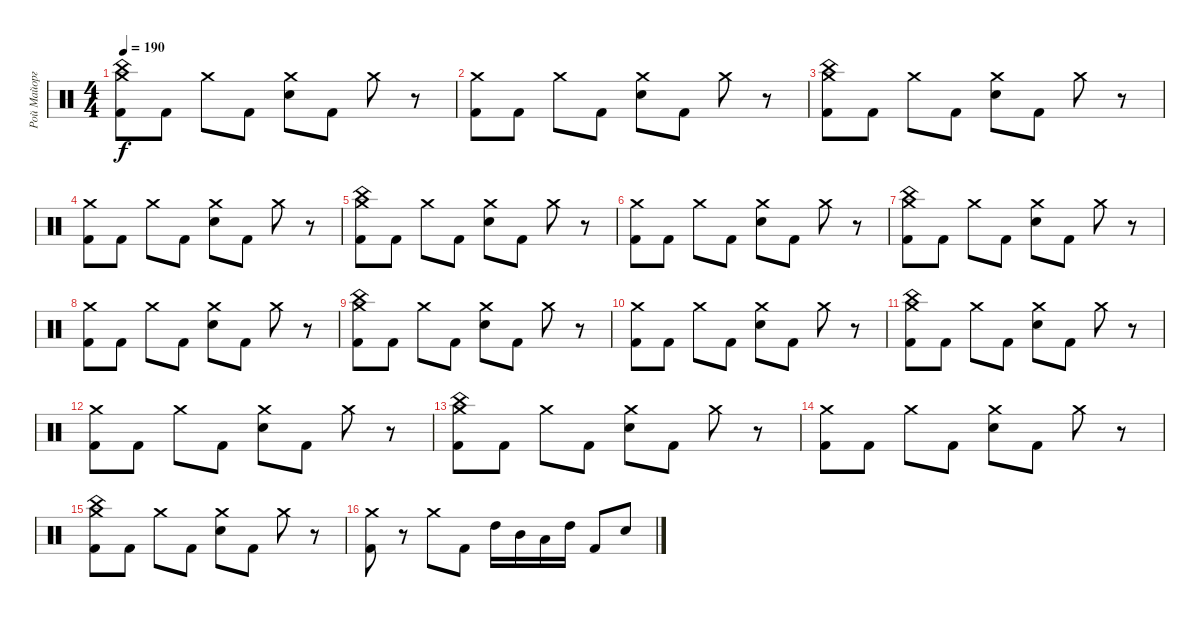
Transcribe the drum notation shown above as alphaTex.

\track ("Рой Майорга" "Рой Майорг") {instrument percussion}
\staff {score}
\articulation defaults
\ts (4 4)
\tempo 190
\clef neutral
\ks c
("Crash medium (hit)" "China (hit)" "Kick (hit) 2").8{dy f} "Kick (hit) 2".8 "Crash medium (hit)".8 "Kick (hit) 2".8 ("Crash medium (hit)" "Electric Snare (hit)").8 "Kick (hit) 2".8 "Crash medium (hit)".8 r.8 |
("Crash medium (hit)" "Kick (hit) 2").8 "Kick (hit) 2".8 "Crash medium (hit)".8 "Kick (hit) 2".8 ("Crash medium (hit)" "Electric Snare (hit)").8 "Kick (hit) 2".8 "Crash medium (hit)".8 r.8 |
("Crash medium (hit)" "China (hit)" "Kick (hit) 2").8 "Kick (hit) 2".8 "Crash medium (hit)".8 "Kick (hit) 2".8 ("Crash medium (hit)" "Electric Snare (hit)").8 "Kick (hit) 2".8 "Crash medium (hit)".8 r.8 |
("Crash medium (hit)" "Kick (hit) 2").8 "Kick (hit) 2".8 "Crash medium (hit)".8 "Kick (hit) 2".8 ("Crash medium (hit)" "Electric Snare (hit)").8 "Kick (hit) 2".8 "Crash medium (hit)".8 r.8 |
("Crash medium (hit)" "China (hit)" "Kick (hit) 2").8 "Kick (hit) 2".8 "Crash medium (hit)".8 "Kick (hit) 2".8 ("Crash medium (hit)" "Electric Snare (hit)").8 "Kick (hit) 2".8 "Crash medium (hit)".8 r.8 |
("Crash medium (hit)" "Kick (hit) 2").8 "Kick (hit) 2".8 "Crash medium (hit)".8 "Kick (hit) 2".8 ("Crash medium (hit)" "Electric Snare (hit)").8 "Kick (hit) 2".8 "Crash medium (hit)".8 r.8 |
("Crash medium (hit)" "China (hit)" "Kick (hit) 2").8 "Kick (hit) 2".8 "Crash medium (hit)".8 "Kick (hit) 2".8 ("Crash medium (hit)" "Electric Snare (hit)").8 "Kick (hit) 2".8 "Crash medium (hit)".8 r.8 |
("Crash medium (hit)" "Kick (hit) 2").8 "Kick (hit) 2".8 "Crash medium (hit)".8 "Kick (hit) 2".8 ("Crash medium (hit)" "Electric Snare (hit)").8 "Kick (hit) 2".8 "Crash medium (hit)".8 r.8 |
("Crash medium (hit)" "China (hit)" "Kick (hit) 2").8 "Kick (hit) 2".8 "Crash medium (hit)".8 "Kick (hit) 2".8 ("Crash medium (hit)" "Electric Snare (hit)").8 "Kick (hit) 2".8 "Crash medium (hit)".8 r.8 |
("Crash medium (hit)" "Kick (hit) 2").8 "Kick (hit) 2".8 "Crash medium (hit)".8 "Kick (hit) 2".8 ("Crash medium (hit)" "Electric Snare (hit)").8 "Kick (hit) 2".8 "Crash medium (hit)".8 r.8 |
("Crash medium (hit)" "China (hit)" "Kick (hit) 2").8 "Kick (hit) 2".8 "Crash medium (hit)".8 "Kick (hit) 2".8 ("Crash medium (hit)" "Electric Snare (hit)").8 "Kick (hit) 2".8 "Crash medium (hit)".8 r.8 |
("Crash medium (hit)" "Kick (hit) 2").8 "Kick (hit) 2".8 "Crash medium (hit)".8 "Kick (hit) 2".8 ("Crash medium (hit)" "Electric Snare (hit)").8 "Kick (hit) 2".8 "Crash medium (hit)".8 r.8 |
("Crash medium (hit)" "China (hit)" "Kick (hit) 2").8 "Kick (hit) 2".8 "Crash medium (hit)".8 "Kick (hit) 2".8 ("Crash medium (hit)" "Electric Snare (hit)").8 "Kick (hit) 2".8 "Crash medium (hit)".8 r.8 |
("Crash medium (hit)" "Kick (hit) 2").8 "Kick (hit) 2".8 "Crash medium (hit)".8 "Kick (hit) 2".8 ("Crash medium (hit)" "Electric Snare (hit)").8 "Kick (hit) 2".8 "Crash medium (hit)".8 r.8 |
("Crash medium (hit)" "China (hit)" "Kick (hit) 2").8 "Kick (hit) 2".8 "Crash medium (hit)".8 "Kick (hit) 2".8 ("Crash medium (hit)" "Electric Snare (hit)").8 "Kick (hit) 2".8 "Crash medium (hit)".8 r.8 |
("Crash medium (hit)" "Kick (hit) 2").8 r.8 "Crash medium (hit)".8 "Kick (hit) 2".8 "High Tom (hit)".16 "Mid Tom (hit)".16 "Low Tom (hit)".16 "High Tom (hit)".16 "Kick (hit) 2".8 "Electric Snare (hit)".8
